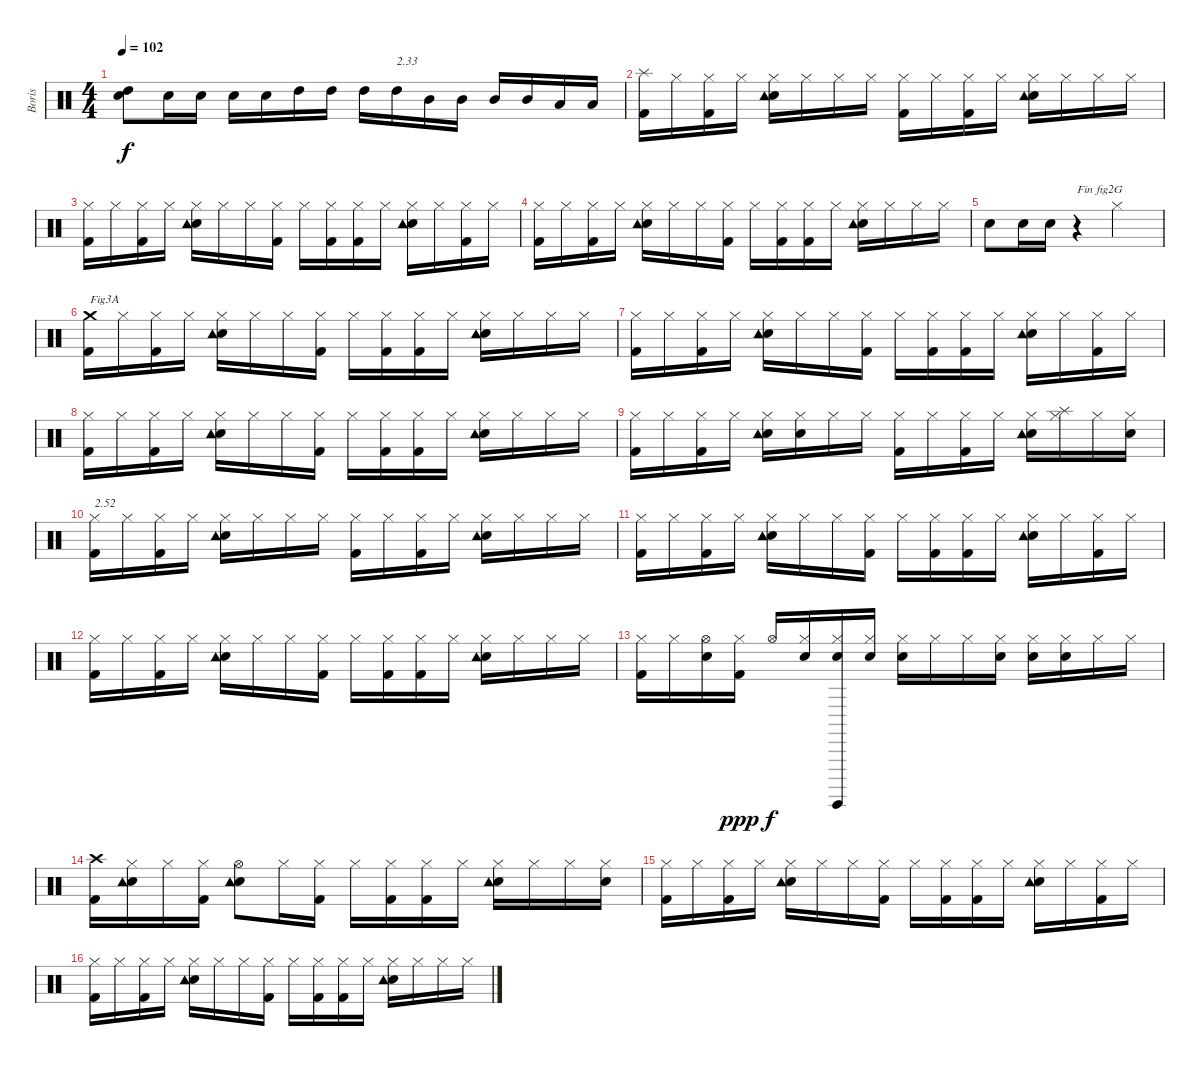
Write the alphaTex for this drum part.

\track ("Boris" "Boris") {instrument percussion}
\staff {score}
\articulation defaults
\ts (4 4)
\tempo 102
\clef neutral
\ks c
("Electric Snare (hit)" "High Tom (hit)").8{dy f} "Electric Snare (hit)".16 "Electric Snare (hit)".16 "Electric Snare (hit)".16 "Electric Snare (hit)".16 "High Tom (hit)".16 "High Tom (hit)".16 "High Tom (hit)".16 "High Tom (hit)".16{txt "2.33"} "Mid Tom (hit)".16 "Mid Tom (hit)".16 "Mid Tom (hit)".16 "Mid Tom (hit)".16 "Low Tom (hit)".16 "Low Tom (hit)".16 |
("Kick (hit) 2" "Splash (hit)").16 "Hi-Hat (closed)".16 ("Kick (hit) 2" "Hi-Hat (closed)").16 "Hi-Hat (closed)".16 ("Electric Snare (hit)" "Tambourine (hit)" "Hi-Hat (closed)").16 "Hi-Hat (closed)".16 "Hi-Hat (closed)".16 "Hi-Hat (closed)".16 ("Kick (hit) 2" "Hi-Hat (closed)").16 "Hi-Hat (closed)".16 ("Kick (hit) 2" "Hi-Hat (closed)").16 "Hi-Hat (closed)".16 ("Electric Snare (hit)" "Tambourine (hit)" "Hi-Hat (closed)").16 "Hi-Hat (closed)".16 "Hi-Hat (closed)".16 "Hi-Hat (closed)".16 |
("Kick (hit) 2" "Hi-Hat (closed)").16 "Hi-Hat (closed)".16 ("Kick (hit) 2" "Hi-Hat (closed)").16 "Hi-Hat (closed)".16 ("Electric Snare (hit)" "Tambourine (hit)" "Hi-Hat (closed)").16 "Hi-Hat (closed)".16 "Hi-Hat (closed)".16 ("Kick (hit) 2" "Hi-Hat (closed)").16 "Hi-Hat (closed)".16 ("Kick (hit) 2" "Hi-Hat (closed)").16 ("Kick (hit) 2" "Hi-Hat (closed)").16 "Hi-Hat (closed)".16 ("Electric Snare (hit)" "Tambourine (hit)" "Hi-Hat (closed)").16 "Hi-Hat (closed)".16 ("Kick (hit) 2" "Hi-Hat (closed)").16 "Hi-Hat (closed)".16 |
("Kick (hit) 2" "Hi-Hat (closed)").16 "Hi-Hat (closed)".16 ("Kick (hit) 2" "Hi-Hat (closed)").16 "Hi-Hat (closed)".16 ("Electric Snare (hit)" "Tambourine (hit)" "Hi-Hat (closed)").16 "Hi-Hat (closed)".16 "Hi-Hat (closed)".16 ("Kick (hit) 2" "Hi-Hat (closed)").16 "Hi-Hat (closed)".16 ("Kick (hit) 2" "Hi-Hat (closed)").16 ("Kick (hit) 2" "Hi-Hat (closed)").16 "Hi-Hat (closed)".16 ("Electric Snare (hit)" "Tambourine (hit)" "Hi-Hat (closed)").16 "Hi-Hat (closed)".16 "Hi-Hat (closed)".16 "Hi-Hat (closed)".16 |
"Electric Snare (hit)".8 "Electric Snare (hit)".16 "Electric Snare (hit)".16 r.4{txt "Fin fig2G"} "Hi-Hat (closed)".2 |
("Kick (hit) 2" "Crash medium (hit)").16{txt "Fig3A"} "Hi-Hat (closed)".16 ("Kick (hit) 2" "Hi-Hat (closed)").16 "Hi-Hat (closed)".16 ("Electric Snare (hit)" "Tambourine (hit)" "Hi-Hat (closed)").16 "Hi-Hat (closed)".16 "Hi-Hat (closed)".16 ("Kick (hit) 2" "Hi-Hat (closed)").16 "Hi-Hat (closed)".16 ("Kick (hit) 2" "Hi-Hat (closed)").16 ("Kick (hit) 2" "Hi-Hat (closed)").16 "Hi-Hat (closed)".16 ("Electric Snare (hit)" "Tambourine (hit)" "Hi-Hat (closed)").16 "Hi-Hat (closed)".16 "Hi-Hat (closed)".16 "Hi-Hat (closed)".16 |
("Kick (hit) 2" "Hi-Hat (closed)").16 "Hi-Hat (closed)".16 ("Kick (hit) 2" "Hi-Hat (closed)").16 "Hi-Hat (closed)".16 ("Electric Snare (hit)" "Tambourine (hit)" "Hi-Hat (closed)").16 "Hi-Hat (closed)".16 "Hi-Hat (closed)".16 ("Kick (hit) 2" "Hi-Hat (closed)").16 "Hi-Hat (closed)".16 ("Kick (hit) 2" "Hi-Hat (closed)").16 ("Kick (hit) 2" "Hi-Hat (closed)").16 "Hi-Hat (closed)".16 ("Electric Snare (hit)" "Tambourine (hit)" "Hi-Hat (closed)").16 "Hi-Hat (closed)".16 ("Kick (hit) 2" "Hi-Hat (closed)").16 "Hi-Hat (closed)".16 |
("Kick (hit) 2" "Hi-Hat (closed)").16 "Hi-Hat (closed)".16 ("Kick (hit) 2" "Hi-Hat (closed)").16 "Hi-Hat (closed)".16 ("Electric Snare (hit)" "Tambourine (hit)" "Hi-Hat (closed)").16 "Hi-Hat (closed)".16 "Hi-Hat (closed)".16 ("Kick (hit) 2" "Hi-Hat (closed)").16 "Hi-Hat (closed)".16 ("Kick (hit) 2" "Hi-Hat (closed)").16 ("Kick (hit) 2" "Hi-Hat (closed)").16 "Hi-Hat (closed)".16 ("Electric Snare (hit)" "Tambourine (hit)" "Hi-Hat (closed)").16 "Hi-Hat (closed)".16 "Hi-Hat (closed)".16 "Hi-Hat (closed)".16 |
("Kick (hit) 2" "Hi-Hat (closed)").16 "Hi-Hat (closed)".16 ("Kick (hit) 2" "Hi-Hat (closed)").16 "Hi-Hat (closed)".16 ("Electric Snare (hit)" "Tambourine (hit)" "Hi-Hat (closed)").16 ("Electric Snare (hit)" "Hi-Hat (closed)").16 "Hi-Hat (closed)".16 "Hi-Hat (closed)".16 ("Kick (hit) 2" "Hi-Hat (closed)").16 "Hi-Hat (closed)".16 ("Kick (hit) 2" "Hi-Hat (closed)").16 "Hi-Hat (closed)".16 ("Electric Snare (hit)" "Tambourine (hit)" "Hi-Hat (closed)").16 ("Hi-Hat (closed)" "Splash (hit)").16 "Hi-Hat (closed)".16 ("Electric Snare (hit)" "Hi-Hat (closed)").16 |
("Kick (hit) 2" "Hi-Hat (closed)").16{txt "2.52"} "Hi-Hat (closed)".16 ("Kick (hit) 2" "Hi-Hat (closed)").16 "Hi-Hat (closed)".16 ("Electric Snare (hit)" "Tambourine (hit)" "Hi-Hat (closed)").16 "Hi-Hat (closed)".16 "Hi-Hat (closed)".16 "Hi-Hat (closed)".16 ("Kick (hit) 2" "Hi-Hat (closed)").16 "Hi-Hat (closed)".16 ("Kick (hit) 2" "Hi-Hat (closed)").16 "Hi-Hat (closed)".16 ("Electric Snare (hit)" "Tambourine (hit)" "Hi-Hat (closed)").16 "Hi-Hat (closed)".16 "Hi-Hat (closed)".16 "Hi-Hat (closed)".16 |
("Kick (hit) 2" "Hi-Hat (closed)").16 "Hi-Hat (closed)".16 ("Kick (hit) 2" "Hi-Hat (closed)").16 "Hi-Hat (closed)".16 ("Electric Snare (hit)" "Tambourine (hit)" "Hi-Hat (closed)").16 "Hi-Hat (closed)".16 "Hi-Hat (closed)".16 ("Kick (hit) 2" "Hi-Hat (closed)").16 "Hi-Hat (closed)".16 ("Kick (hit) 2" "Hi-Hat (closed)").16 ("Kick (hit) 2" "Hi-Hat (closed)").16 "Hi-Hat (closed)".16 ("Electric Snare (hit)" "Tambourine (hit)" "Hi-Hat (closed)").16 "Hi-Hat (closed)".16 ("Kick (hit) 2" "Hi-Hat (closed)").16 "Hi-Hat (closed)".16 |
("Kick (hit) 2" "Hi-Hat (closed)").16 "Hi-Hat (closed)".16 ("Kick (hit) 2" "Hi-Hat (closed)").16 "Hi-Hat (closed)".16 ("Electric Snare (hit)" "Tambourine (hit)" "Hi-Hat (closed)").16 "Hi-Hat (closed)".16 "Hi-Hat (closed)".16 ("Kick (hit) 2" "Hi-Hat (closed)").16 "Hi-Hat (closed)".16 ("Kick (hit) 2" "Hi-Hat (closed)").16 ("Kick (hit) 2" "Hi-Hat (closed)").16 "Hi-Hat (closed)".16 ("Electric Snare (hit)" "Tambourine (hit)" "Hi-Hat (closed)").16 "Hi-Hat (closed)".16 "Hi-Hat (closed)".16 "Hi-Hat (closed)".16 |
("Kick (hit) 2" "Hi-Hat (closed)").16 "Hi-Hat (closed)".16 ("Electric Snare (hit)" "Hi-Hat (open)").16 ("Kick (hit) 2" "Hi-Hat (closed)").16{dy ppp} "Hi-Hat (open)".16{dy f} ("Electric Snare (hit)" "Hi-Hat (closed)").16 ("Electric Snare (hit)" "Surdo (hit)" "Hi-Hat (closed)").16 ("Electric Snare (hit)" "Hi-Hat (closed)").16 ("Electric Snare (hit)" "Hi-Hat (closed)").16 "Hi-Hat (closed)".16 "Hi-Hat (closed)".16 ("Electric Snare (hit)" "Hi-Hat (closed)").16 ("Electric Snare (hit)" "Hi-Hat (closed)").16 ("Electric Snare (hit)" "Hi-Hat (closed)").16 "Hi-Hat (closed)".16 "Hi-Hat (closed)".16 |
("Kick (hit) 2" "Crash high (hit)").16 ("Electric Snare (hit)" "Tambourine (hit)" "Hi-Hat (closed)").16 "Hi-Hat (closed)".16 ("Kick (hit) 2" "Hi-Hat (closed)").16 ("Electric Snare (hit)" "Tambourine (hit)" "Hi-Hat (open)").8 "Hi-Hat (closed)".16 ("Kick (hit) 2" "Hi-Hat (closed)").16 "Hi-Hat (closed)".16 ("Kick (hit) 2" "Hi-Hat (closed)").16 ("Kick (hit) 2" "Hi-Hat (closed)").16 "Hi-Hat (closed)".16 ("Electric Snare (hit)" "Tambourine (hit)" "Hi-Hat (closed)").16 "Hi-Hat (closed)".16 "Hi-Hat (closed)".16 ("Electric Snare (hit)" "Hi-Hat (closed)").16 |
("Kick (hit) 2" "Hi-Hat (closed)").16 "Hi-Hat (closed)".16 ("Kick (hit) 2" "Hi-Hat (closed)").16 "Hi-Hat (closed)".16 ("Electric Snare (hit)" "Tambourine (hit)" "Hi-Hat (closed)").16 "Hi-Hat (closed)".16 "Hi-Hat (closed)".16 ("Kick (hit) 2" "Hi-Hat (closed)").16 "Hi-Hat (closed)".16 ("Kick (hit) 2" "Hi-Hat (closed)").16 ("Kick (hit) 2" "Hi-Hat (closed)").16 "Hi-Hat (closed)".16 ("Electric Snare (hit)" "Tambourine (hit)" "Hi-Hat (closed)").16 "Hi-Hat (closed)".16 ("Kick (hit) 2" "Hi-Hat (closed)").16 "Hi-Hat (closed)".16 |
("Kick (hit) 2" "Hi-Hat (closed)").16 "Hi-Hat (closed)".16 ("Kick (hit) 2" "Hi-Hat (closed)").16 "Hi-Hat (closed)".16 ("Electric Snare (hit)" "Tambourine (hit)" "Hi-Hat (closed)").16 "Hi-Hat (closed)".16 "Hi-Hat (closed)".16 ("Kick (hit) 2" "Hi-Hat (closed)").16 "Hi-Hat (closed)".16 ("Kick (hit) 2" "Hi-Hat (closed)").16 ("Kick (hit) 2" "Hi-Hat (closed)").16 "Hi-Hat (closed)".16 ("Electric Snare (hit)" "Tambourine (hit)" "Hi-Hat (closed)").16 "Hi-Hat (closed)".16 "Hi-Hat (closed)".16 "Hi-Hat (closed)".16
